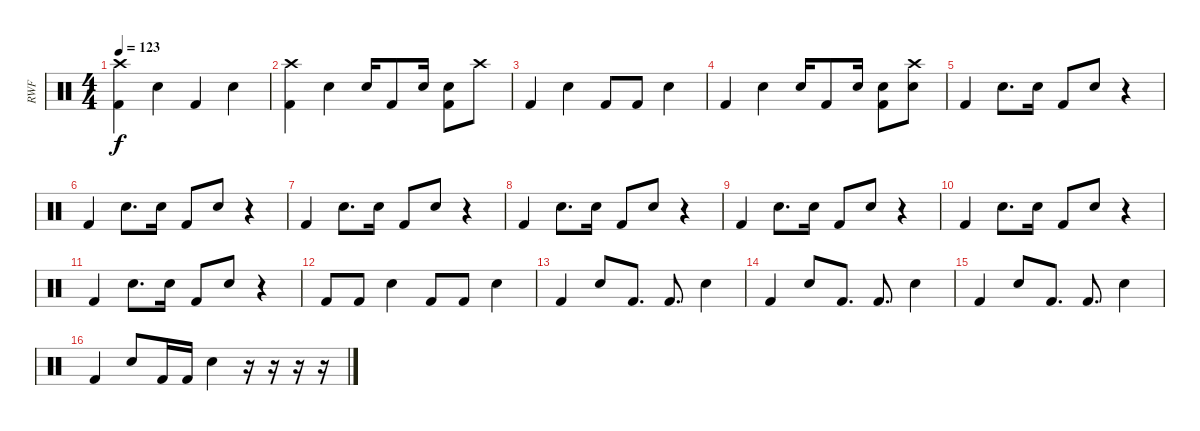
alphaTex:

\track ("RWF" "RWF") {instrument percussion}
\staff {score}
\articulation defaults
\ts (4 4)
\tempo 123
\clef neutral
\ks c
("Kick (hit) 2" "Crash high (hit)").4{dy f} "Electric Snare (hit)".4 "Kick (hit) 2".4 "Electric Snare (hit)".4 |
("Kick (hit) 2" "Crash high (hit)").4 "Electric Snare (hit)".4 "Electric Snare (hit)".16 "Kick (hit) 2".8 "Electric Snare (hit)".16 ("Kick (hit) 2" "Electric Snare (hit)").8 "Crash high (hit)".8 |
"Kick (hit) 2".4 "Electric Snare (hit)".4 "Kick (hit) 2".8 "Kick (hit) 2".8 "Electric Snare (hit)".4 |
"Kick (hit) 2".4 "Electric Snare (hit)".4 "Electric Snare (hit)".16 "Kick (hit) 2".8 "Electric Snare (hit)".16 ("Kick (hit) 2" "Electric Snare (hit)").8 ("Electric Snare (hit)" "Crash high (hit)").8 |
"Kick (hit) 2".4 "Electric Snare (hit)".8{d} "Electric Snare (hit)".16 "Kick (hit) 2".8 "Electric Snare (hit)".8 r.4 |
"Kick (hit) 2".4 "Electric Snare (hit)".8{d} "Electric Snare (hit)".16 "Kick (hit) 2".8 "Electric Snare (hit)".8 r.4 |
"Kick (hit) 2".4 "Electric Snare (hit)".8{d} "Electric Snare (hit)".16 "Kick (hit) 2".8 "Electric Snare (hit)".8 r.4 |
"Kick (hit) 2".4 "Electric Snare (hit)".8{d} "Electric Snare (hit)".16 "Kick (hit) 2".8 "Electric Snare (hit)".8 r.4 |
"Kick (hit) 2".4 "Electric Snare (hit)".8{d} "Electric Snare (hit)".16 "Kick (hit) 2".8 "Electric Snare (hit)".8 r.4 |
"Kick (hit) 2".4 "Electric Snare (hit)".8{d} "Electric Snare (hit)".16 "Kick (hit) 2".8 "Electric Snare (hit)".8 r.4 |
"Kick (hit) 2".4 "Electric Snare (hit)".8{d} "Electric Snare (hit)".16 "Kick (hit) 2".8 "Electric Snare (hit)".8 r.4 |
"Kick (hit) 2".8 "Kick (hit) 2".8 "Electric Snare (hit)".4 "Kick (hit) 2".8 "Kick (hit) 2".8 "Electric Snare (hit)".4 |
"Kick (hit) 2".4 "Electric Snare (hit)".8 "Kick (hit) 2".8{d} "Kick (hit) 2".8{d} "Electric Snare (hit)".4 |
"Kick (hit) 2".4 "Electric Snare (hit)".8 "Kick (hit) 2".8{d} "Kick (hit) 2".8{d} "Electric Snare (hit)".4 |
"Kick (hit) 2".4 "Electric Snare (hit)".8 "Kick (hit) 2".8{d} "Kick (hit) 2".8{d} "Electric Snare (hit)".4 |
"Kick (hit) 2".4 "Electric Snare (hit)".8 "Kick (hit) 2".16 "Kick (hit) 2".16 "Electric Snare (hit)".4 r.16 r.16 r.16 r.16
